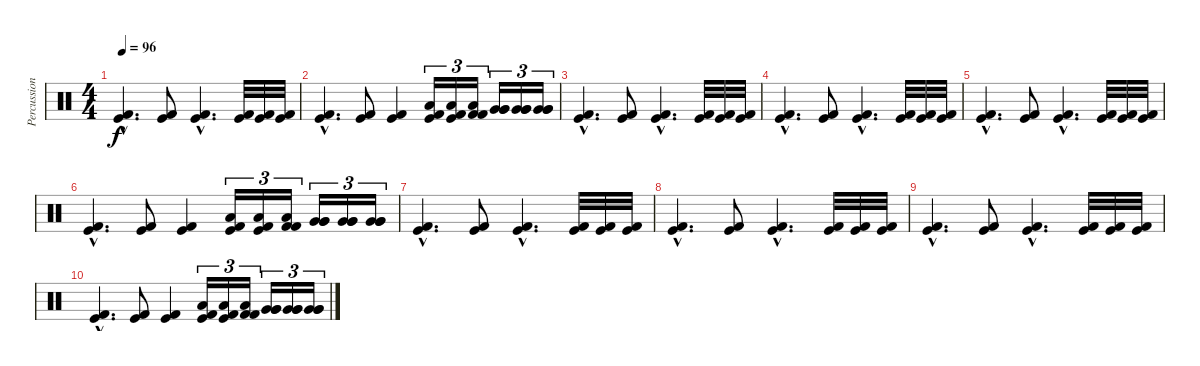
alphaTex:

\track ("Percussion" "Percussion") {instrument percussion}
\staff {score}
\articulation defaults
\ts (4 4)
\tempo 96
\clef neutral
\ks c
("Kick (hit) 2"{hac} "Kick (hit)"{hac}).4{d dy f} ("Kick (hit) 2" "Kick (hit)").8 ("Kick (hit)"{hac} "Kick (hit) 2"{hac}).4{d} ("Kick (hit) 2" "Kick (hit)").32 ("Kick (hit) 2" "Kick (hit)").32 ("Kick (hit) 2" "Kick (hit)").32 |
("Kick (hit) 2"{hac} "Kick (hit)"{hac}).4{d} ("Kick (hit) 2" "Kick (hit)").8 ("Kick (hit)" "Kick (hit) 2").4 ("Low Tom (hit)" "Kick (hit) 2" "Kick (hit)").16{tu (3 2)} ("Low Tom (hit)" "Kick (hit) 2" "Kick (hit)").16{tu (3 2)} ("Low Tom (hit)" "Kick (hit) 2" "Kick (hit) 2").16{tu (3 2)} ("Very Low Tom (hit)" "Very Low Tom (hit)" "Very Low Tom (hit)").16{tu (3 2)} ("Very Low Tom (hit)" "Very Low Tom (hit)" "Very Low Tom (hit)").16{tu (3 2)} ("Very Low Tom (hit)" "Very Low Tom (hit)" "Very Low Tom (hit)").16{tu (3 2)} |
("Kick (hit) 2"{hac} "Kick (hit)"{hac}).4{d} ("Kick (hit) 2" "Kick (hit)").8 ("Kick (hit)"{hac} "Kick (hit) 2"{hac}).4{d} ("Kick (hit) 2" "Kick (hit)").32 ("Kick (hit) 2" "Kick (hit)").32 ("Kick (hit) 2" "Kick (hit)").32 |
("Kick (hit) 2"{hac} "Kick (hit)"{hac}).4{d} ("Kick (hit) 2" "Kick (hit)").8 ("Kick (hit)"{hac} "Kick (hit) 2"{hac}).4{d} ("Kick (hit) 2" "Kick (hit)").32 ("Kick (hit) 2" "Kick (hit)").32 ("Kick (hit) 2" "Kick (hit)").32 |
("Kick (hit) 2"{hac} "Kick (hit)"{hac}).4{d} ("Kick (hit) 2" "Kick (hit)").8 ("Kick (hit)"{hac} "Kick (hit) 2"{hac}).4{d} ("Kick (hit) 2" "Kick (hit)").32 ("Kick (hit) 2" "Kick (hit)").32 ("Kick (hit) 2" "Kick (hit)").32 |
("Kick (hit) 2"{hac} "Kick (hit)"{hac}).4{d} ("Kick (hit) 2" "Kick (hit)").8 ("Kick (hit)" "Kick (hit) 2").4 ("Low Tom (hit)" "Kick (hit) 2" "Kick (hit)").16{tu (3 2)} ("Low Tom (hit)" "Kick (hit) 2" "Kick (hit)").16{tu (3 2)} ("Low Tom (hit)" "Kick (hit) 2" "Kick (hit) 2").16{tu (3 2)} ("Very Low Tom (hit)" "Very Low Tom (hit)" "Very Low Tom (hit)").16{tu (3 2)} ("Very Low Tom (hit)" "Very Low Tom (hit)" "Very Low Tom (hit)").16{tu (3 2)} ("Very Low Tom (hit)" "Very Low Tom (hit)" "Very Low Tom (hit)").16{tu (3 2)} |
("Kick (hit) 2"{hac} "Kick (hit)"{hac}).4{d} ("Kick (hit) 2" "Kick (hit)").8 ("Kick (hit)"{hac} "Kick (hit) 2"{hac}).4{d} ("Kick (hit) 2" "Kick (hit)").32 ("Kick (hit) 2" "Kick (hit)").32 ("Kick (hit) 2" "Kick (hit)").32 |
("Kick (hit) 2"{hac} "Kick (hit)"{hac}).4{d} ("Kick (hit) 2" "Kick (hit)").8 ("Kick (hit)"{hac} "Kick (hit) 2"{hac}).4{d} ("Kick (hit) 2" "Kick (hit)").32 ("Kick (hit) 2" "Kick (hit)").32 ("Kick (hit) 2" "Kick (hit)").32 |
("Kick (hit) 2"{hac} "Kick (hit)"{hac}).4{d} ("Kick (hit) 2" "Kick (hit)").8 ("Kick (hit)"{hac} "Kick (hit) 2"{hac}).4{d} ("Kick (hit) 2" "Kick (hit)").32 ("Kick (hit) 2" "Kick (hit)").32 ("Kick (hit) 2" "Kick (hit)").32 |
("Kick (hit) 2"{hac} "Kick (hit)"{hac}).4{d} ("Kick (hit) 2" "Kick (hit)").8 ("Kick (hit)" "Kick (hit) 2").4 ("Low Tom (hit)" "Kick (hit) 2" "Kick (hit)").16{tu (3 2)} ("Low Tom (hit)" "Kick (hit) 2" "Kick (hit)").16{tu (3 2)} ("Low Tom (hit)" "Kick (hit) 2" "Kick (hit) 2").16{tu (3 2)} ("Very Low Tom (hit)" "Very Low Tom (hit)" "Very Low Tom (hit)").16{tu (3 2)} ("Very Low Tom (hit)" "Very Low Tom (hit)" "Very Low Tom (hit)").16{tu (3 2)} ("Very Low Tom (hit)" "Very Low Tom (hit)" "Very Low Tom (hit)").16{tu (3 2)}
